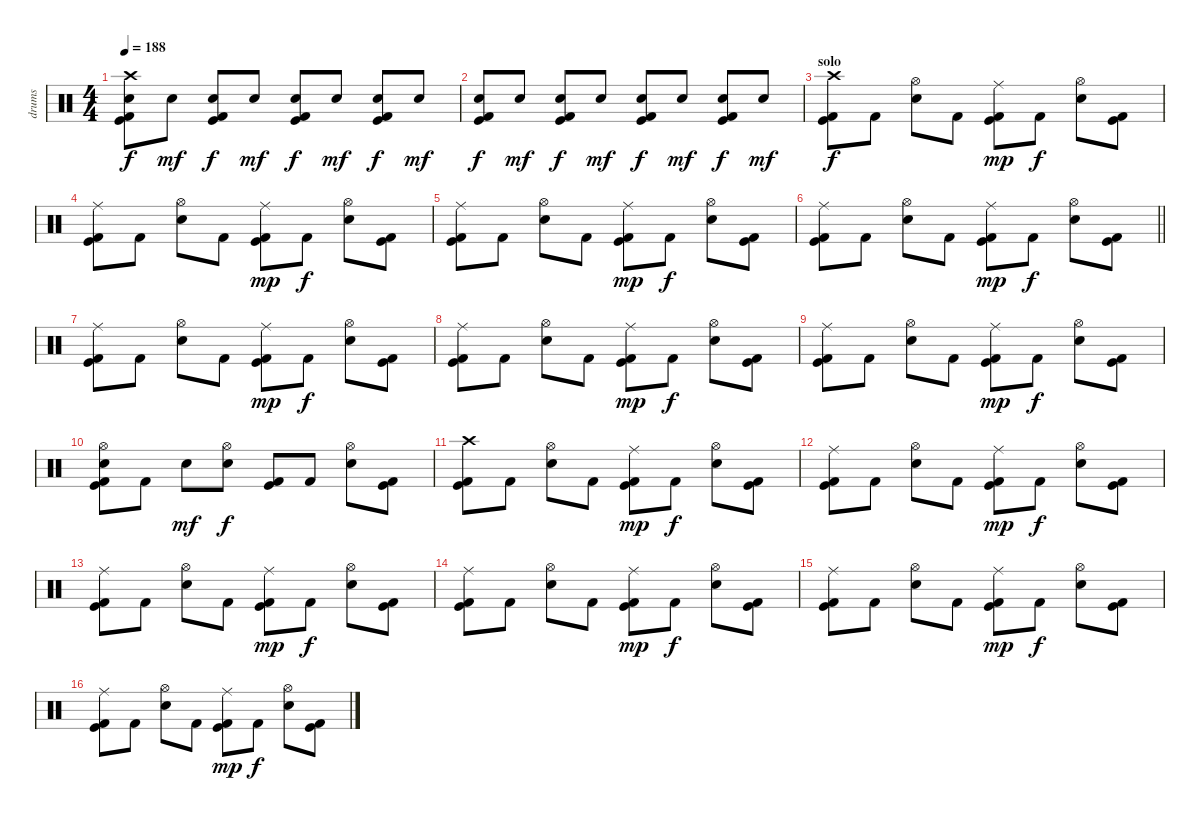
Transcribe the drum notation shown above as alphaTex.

\track ("drums" "drums") {instrument percussion}
\staff {score}
\articulation defaults
\ts (4 4)
\tempo 188
\clef neutral
\ks c
("Crash high (hit)" "Snare (hit) 2" "Kick (hit)" "Kick (hit) 2").8{dy f} "Snare (hit) 2".8{dy mf} ("Snare (hit) 2" "Kick (hit)" "Kick (hit) 2").8{dy f} "Snare (hit) 2".8{dy mf} ("Snare (hit) 2" "Kick (hit)" "Kick (hit) 2").8{dy f} "Snare (hit) 2".8{dy mf} ("Snare (hit) 2" "Kick (hit)" "Kick (hit) 2").8{dy f} "Snare (hit) 2".8{dy mf} |
("Snare (hit) 2" "Kick (hit)" "Kick (hit) 2").8{dy f} "Snare (hit) 2".8{dy mf} ("Snare (hit) 2" "Kick (hit)" "Kick (hit) 2").8{dy f} "Snare (hit) 2".8{dy mf} ("Snare (hit) 2" "Kick (hit)" "Kick (hit) 2").8{dy f} "Snare (hit) 2".8{dy mf} ("Snare (hit) 2" "Kick (hit)" "Kick (hit) 2").8{dy f} "Snare (hit) 2".8{dy mf} |
\section ("" "solo")
("Crash high (hit)" "Kick (hit)" "Kick (hit) 2").8{dy f} "Kick (hit) 2".8 ("Hi-Hat (open)" "Snare (hit) 2").8 "Kick (hit) 2".8 ("Ride (middle)" "Kick (hit)" "Kick (hit) 2").8{dy mp} "Kick (hit) 2".8{dy f} ("Hi-Hat (open)" "Snare (hit) 2").8 ("Kick (hit)" "Kick (hit) 2").8 |
("Ride (middle)" "Kick (hit)" "Kick (hit) 2").8 "Kick (hit) 2".8 ("Hi-Hat (open)" "Snare (hit) 2").8 "Kick (hit) 2".8 ("Ride (middle)" "Kick (hit)" "Kick (hit) 2").8{dy mp} "Kick (hit) 2".8{dy f} ("Hi-Hat (open)" "Snare (hit) 2").8 ("Kick (hit)" "Kick (hit) 2").8 |
("Ride (middle)" "Kick (hit)" "Kick (hit) 2").8 "Kick (hit) 2".8 ("Hi-Hat (open)" "Snare (hit) 2").8 "Kick (hit) 2".8 ("Ride (middle)" "Kick (hit)" "Kick (hit) 2").8{dy mp} "Kick (hit) 2".8{dy f} ("Hi-Hat (open)" "Snare (hit) 2").8 ("Kick (hit)" "Kick (hit) 2").8 |
\barLineRight lightlight
("Ride (middle)" "Kick (hit)" "Kick (hit) 2").8 "Kick (hit) 2".8 ("Hi-Hat (open)" "Snare (hit) 2").8 "Kick (hit) 2".8 ("Ride (middle)" "Kick (hit)" "Kick (hit) 2").8{dy mp} "Kick (hit) 2".8{dy f} ("Hi-Hat (open)" "Snare (hit) 2").8 ("Kick (hit)" "Kick (hit) 2").8 |
("Ride (middle)" "Kick (hit)" "Kick (hit) 2").8 "Kick (hit) 2".8 ("Hi-Hat (open)" "Snare (hit) 2").8 "Kick (hit) 2".8 ("Ride (middle)" "Kick (hit)" "Kick (hit) 2").8{dy mp} "Kick (hit) 2".8{dy f} ("Hi-Hat (open)" "Snare (hit) 2").8 ("Kick (hit)" "Kick (hit) 2").8 |
("Ride (middle)" "Kick (hit)" "Kick (hit) 2").8 "Kick (hit) 2".8 ("Hi-Hat (open)" "Snare (hit) 2").8 "Kick (hit) 2".8 ("Ride (middle)" "Kick (hit)" "Kick (hit) 2").8{dy mp} "Kick (hit) 2".8{dy f} ("Hi-Hat (open)" "Snare (hit) 2").8 ("Kick (hit)" "Kick (hit) 2").8 |
("Ride (middle)" "Kick (hit)" "Kick (hit) 2").8 "Kick (hit) 2".8 ("Hi-Hat (open)" "Snare (hit) 2").8 "Kick (hit) 2".8 ("Ride (middle)" "Kick (hit)" "Kick (hit) 2").8{dy mp} "Kick (hit) 2".8{dy f} ("Hi-Hat (open)" "Snare (hit) 2").8 ("Kick (hit)" "Kick (hit) 2").8 |
("Hi-Hat (open)" "Snare (hit) 2" "Kick (hit)" "Kick (hit) 2").8 "Kick (hit) 2".8 "Snare (hit) 2".8{dy mf} ("Hi-Hat (open)" "Snare (hit) 2").8{dy f} ("Kick (hit)" "Kick (hit) 2").8 "Kick (hit) 2".8 ("Hi-Hat (open)" "Snare (hit) 2").8 ("Kick (hit)" "Kick (hit) 2").8 |
("Crash high (hit)" "Kick (hit)" "Kick (hit) 2").8 "Kick (hit) 2".8 ("Hi-Hat (open)" "Snare (hit) 2").8 "Kick (hit) 2".8 ("Ride (middle)" "Kick (hit)" "Kick (hit) 2").8{dy mp} "Kick (hit) 2".8{dy f} ("Hi-Hat (open)" "Snare (hit) 2").8 ("Kick (hit)" "Kick (hit) 2").8 |
("Ride (middle)" "Kick (hit)" "Kick (hit) 2").8 "Kick (hit) 2".8 ("Hi-Hat (open)" "Snare (hit) 2").8 "Kick (hit) 2".8 ("Ride (middle)" "Kick (hit)" "Kick (hit) 2").8{dy mp} "Kick (hit) 2".8{dy f} ("Hi-Hat (open)" "Snare (hit) 2").8 ("Kick (hit)" "Kick (hit) 2").8 |
("Ride (middle)" "Kick (hit)" "Kick (hit) 2").8 "Kick (hit) 2".8 ("Hi-Hat (open)" "Snare (hit) 2").8 "Kick (hit) 2".8 ("Ride (middle)" "Kick (hit)" "Kick (hit) 2").8{dy mp} "Kick (hit) 2".8{dy f} ("Hi-Hat (open)" "Snare (hit) 2").8 ("Kick (hit)" "Kick (hit) 2").8 |
("Ride (middle)" "Kick (hit)" "Kick (hit) 2").8 "Kick (hit) 2".8 ("Hi-Hat (open)" "Snare (hit) 2").8 "Kick (hit) 2".8 ("Ride (middle)" "Kick (hit)" "Kick (hit) 2").8{dy mp} "Kick (hit) 2".8{dy f} ("Hi-Hat (open)" "Snare (hit) 2").8 ("Kick (hit)" "Kick (hit) 2").8 |
("Ride (middle)" "Kick (hit)" "Kick (hit) 2").8 "Kick (hit) 2".8 ("Hi-Hat (open)" "Snare (hit) 2").8 "Kick (hit) 2".8 ("Ride (middle)" "Kick (hit)" "Kick (hit) 2").8{dy mp} "Kick (hit) 2".8{dy f} ("Hi-Hat (open)" "Snare (hit) 2").8 ("Kick (hit)" "Kick (hit) 2").8 |
("Ride (middle)" "Kick (hit)" "Kick (hit) 2").8 "Kick (hit) 2".8 ("Hi-Hat (open)" "Snare (hit) 2").8 "Kick (hit) 2".8 ("Ride (middle)" "Kick (hit)" "Kick (hit) 2").8{dy mp} "Kick (hit) 2".8{dy f} ("Hi-Hat (open)" "Snare (hit) 2").8 ("Kick (hit)" "Kick (hit) 2").8
